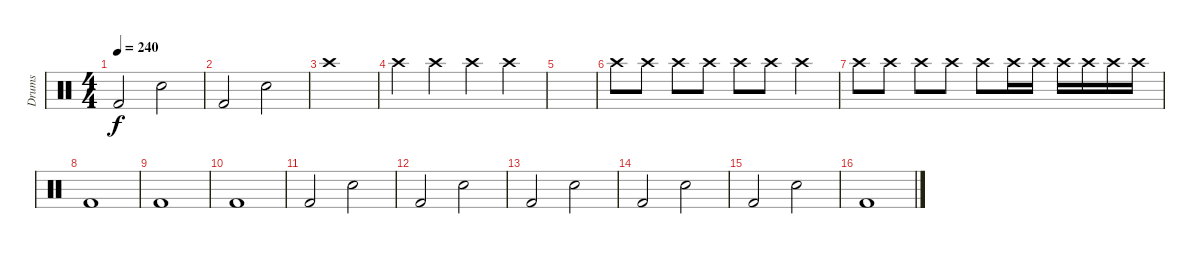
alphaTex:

\track ("Drums" "Drums") {instrument percussion}
\staff {score}
\articulation defaults
\ts (4 4)
\tempo 240
\clef neutral
\ks c "Kick (hit) 2".2{dy f} "Snare (hit) 2".2
|
"Kick (hit) 2".2 "Snare (hit) 2".2 |
"Crash high (hit)".1 |
"Crash high (hit)".4 "Crash high (hit)".4 "Crash high (hit)".4 "Crash high (hit)".4 |
|
"Crash high (hit)".8 "Crash high (hit)".8 "Crash high (hit)".8 "Crash high (hit)".8 "Crash high (hit)".8 "Crash high (hit)".8 "Crash high (hit)".4 |
"Crash high (hit)".8 "Crash high (hit)".8 "Crash high (hit)".8 "Crash high (hit)".8 "Crash high (hit)".8 "Crash high (hit)".16 "Crash high (hit)".16 "Crash high (hit)".16 "Crash high (hit)".16 "Crash high (hit)".16 "Crash high (hit)".16 |
"Kick (hit) 2".1 |
"Kick (hit) 2".1 |
"Kick (hit) 2".1 |
"Kick (hit) 2".2 "Snare (hit) 2".2 |
"Kick (hit) 2".2 "Snare (hit) 2".2 |
"Kick (hit) 2".2 "Snare (hit) 2".2 |
"Kick (hit) 2".2 "Snare (hit) 2".2 |
"Kick (hit) 2".2 "Snare (hit) 2".2 |
"Kick (hit) 2".1
